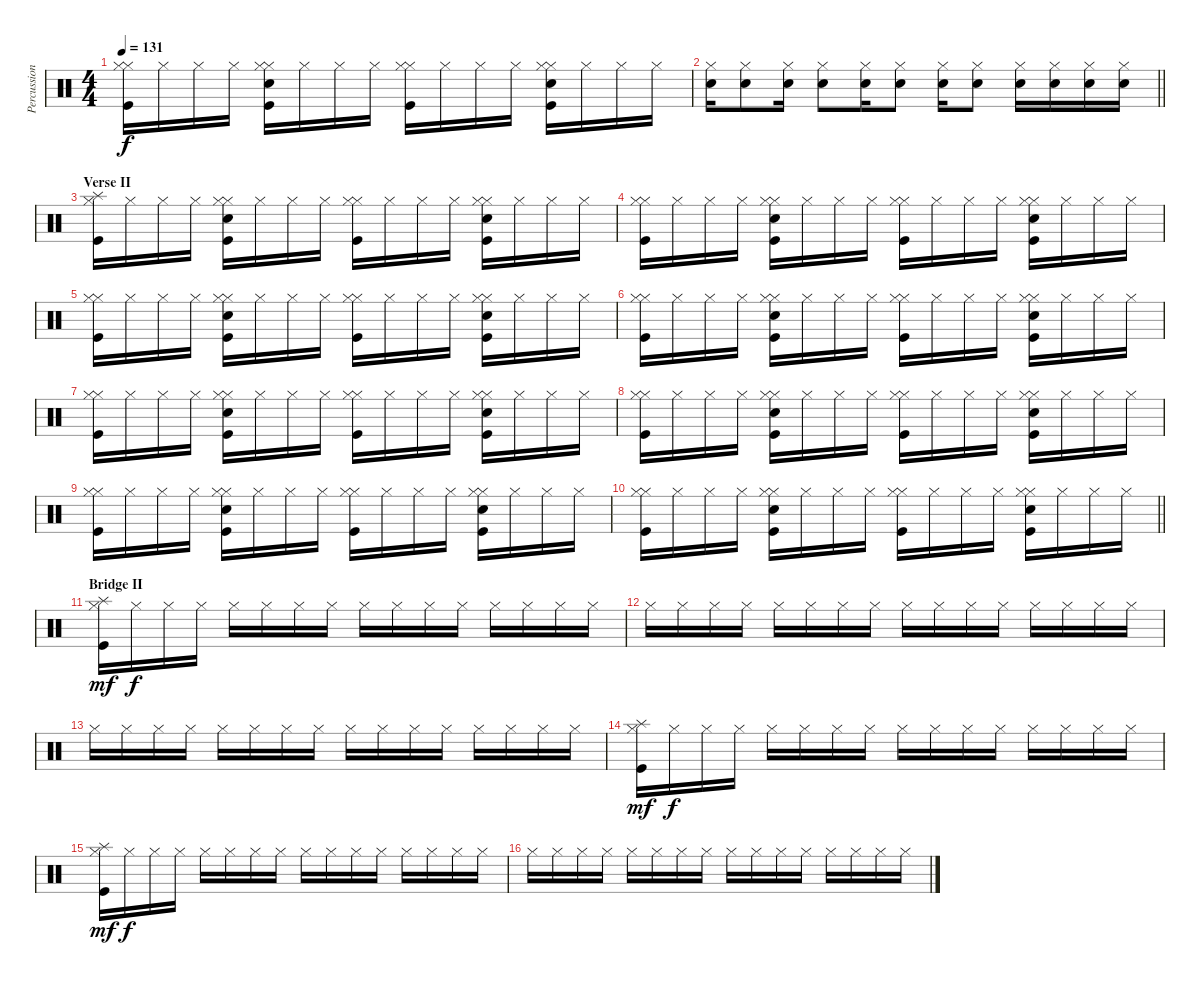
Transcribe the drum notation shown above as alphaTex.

\track ("Percussion I" "Percussion") {instrument percussion}
\staff {score}
\articulation defaults
\ts (4 4)
\tempo 131
\clef neutral
\ks c
("Hi-Hat (closed)" "Hi-Hat (closed)" "Kick (hit)").16{dy f} "Hi-Hat (closed)".16 "Hi-Hat (closed)".16 "Hi-Hat (closed)".16 ("Hi-Hat (closed)" "Hand Clap (hit)" "Hi-Hat (closed)" "Kick (hit)").16 "Hi-Hat (closed)".16 "Hi-Hat (closed)".16 "Hi-Hat (closed)".16 ("Hi-Hat (closed)" "Hi-Hat (closed)" "Kick (hit)").16 "Hi-Hat (closed)".16 "Hi-Hat (closed)".16 "Hi-Hat (closed)".16 ("Hi-Hat (closed)" "Hand Clap (hit)" "Hi-Hat (closed)" "Kick (hit)").16 "Hi-Hat (closed)".16 "Hi-Hat (closed)".16 "Hi-Hat (closed)".16 |
\barLineRight lightlight
("Electric Snare (hit)" "Hi-Hat (closed)").16 ("Electric Snare (hit)" "Hi-Hat (closed)").8 ("Electric Snare (hit)" "Hi-Hat (closed)").16 ("Electric Snare (hit)" "Hi-Hat (closed)").8 ("Electric Snare (hit)" "Hi-Hat (closed)").16 ("Electric Snare (hit)" "Hi-Hat (closed)").8 ("Electric Snare (hit)" "Hi-Hat (closed)").16 ("Electric Snare (hit)" "Hi-Hat (closed)").8 ("Electric Snare (hit)" "Hi-Hat (closed)").16 ("Electric Snare (hit)" "Hi-Hat (closed)").16 ("Electric Snare (hit)" "Hi-Hat (closed)").16 ("Electric Snare (hit)" "Hi-Hat (closed)").16 |
\section ("" "Verse II")
("Splash (hit)" "Hi-Hat (closed)" "Kick (hit)").16 "Hi-Hat (closed)".16 "Hi-Hat (closed)".16 "Hi-Hat (closed)".16 ("Hi-Hat (closed)" "Hand Clap (hit)" "Hi-Hat (closed)" "Kick (hit)").16 "Hi-Hat (closed)".16 "Hi-Hat (closed)".16 "Hi-Hat (closed)".16 ("Hi-Hat (closed)" "Hi-Hat (closed)" "Kick (hit)").16 "Hi-Hat (closed)".16 "Hi-Hat (closed)".16 "Hi-Hat (closed)".16 ("Hi-Hat (closed)" "Hand Clap (hit)" "Hi-Hat (closed)" "Kick (hit)").16 "Hi-Hat (closed)".16 "Hi-Hat (closed)".16 "Hi-Hat (closed)".16 |
("Hi-Hat (closed)" "Hi-Hat (closed)" "Kick (hit)").16 "Hi-Hat (closed)".16 "Hi-Hat (closed)".16 "Hi-Hat (closed)".16 ("Hi-Hat (closed)" "Hand Clap (hit)" "Hi-Hat (closed)" "Kick (hit)").16 "Hi-Hat (closed)".16 "Hi-Hat (closed)".16 "Hi-Hat (closed)".16 ("Hi-Hat (closed)" "Hi-Hat (closed)" "Kick (hit)").16 "Hi-Hat (closed)".16 "Hi-Hat (closed)".16 "Hi-Hat (closed)".16 ("Hi-Hat (closed)" "Hand Clap (hit)" "Hi-Hat (closed)" "Kick (hit)").16 "Hi-Hat (closed)".16 "Hi-Hat (closed)".16 "Hi-Hat (closed)".16 |
("Hi-Hat (closed)" "Hi-Hat (closed)" "Kick (hit)").16 "Hi-Hat (closed)".16 "Hi-Hat (closed)".16 "Hi-Hat (closed)".16 ("Hi-Hat (closed)" "Hand Clap (hit)" "Hi-Hat (closed)" "Kick (hit)").16 "Hi-Hat (closed)".16 "Hi-Hat (closed)".16 "Hi-Hat (closed)".16 ("Hi-Hat (closed)" "Hi-Hat (closed)" "Kick (hit)").16 "Hi-Hat (closed)".16 "Hi-Hat (closed)".16 "Hi-Hat (closed)".16 ("Hi-Hat (closed)" "Hand Clap (hit)" "Hi-Hat (closed)" "Kick (hit)").16 "Hi-Hat (closed)".16 "Hi-Hat (closed)".16 "Hi-Hat (closed)".16 |
("Hi-Hat (closed)" "Hi-Hat (closed)" "Kick (hit)").16 "Hi-Hat (closed)".16 "Hi-Hat (closed)".16 "Hi-Hat (closed)".16 ("Hi-Hat (closed)" "Hand Clap (hit)" "Hi-Hat (closed)" "Kick (hit)").16 "Hi-Hat (closed)".16 "Hi-Hat (closed)".16 "Hi-Hat (closed)".16 ("Hi-Hat (closed)" "Hi-Hat (closed)" "Kick (hit)").16 "Hi-Hat (closed)".16 "Hi-Hat (closed)".16 "Hi-Hat (closed)".16 ("Hi-Hat (closed)" "Hand Clap (hit)" "Hi-Hat (closed)" "Kick (hit)").16 "Hi-Hat (closed)".16 "Hi-Hat (closed)".16 "Hi-Hat (closed)".16 |
("Hi-Hat (closed)" "Hi-Hat (closed)" "Kick (hit)").16 "Hi-Hat (closed)".16 "Hi-Hat (closed)".16 "Hi-Hat (closed)".16 ("Hi-Hat (closed)" "Hand Clap (hit)" "Hi-Hat (closed)" "Kick (hit)").16 "Hi-Hat (closed)".16 "Hi-Hat (closed)".16 "Hi-Hat (closed)".16 ("Hi-Hat (closed)" "Hi-Hat (closed)" "Kick (hit)").16 "Hi-Hat (closed)".16 "Hi-Hat (closed)".16 "Hi-Hat (closed)".16 ("Hi-Hat (closed)" "Hand Clap (hit)" "Hi-Hat (closed)" "Kick (hit)").16 "Hi-Hat (closed)".16 "Hi-Hat (closed)".16 "Hi-Hat (closed)".16 |
("Hi-Hat (closed)" "Hi-Hat (closed)" "Kick (hit)").16 "Hi-Hat (closed)".16 "Hi-Hat (closed)".16 "Hi-Hat (closed)".16 ("Hi-Hat (closed)" "Hand Clap (hit)" "Hi-Hat (closed)" "Kick (hit)").16 "Hi-Hat (closed)".16 "Hi-Hat (closed)".16 "Hi-Hat (closed)".16 ("Hi-Hat (closed)" "Hi-Hat (closed)" "Kick (hit)").16 "Hi-Hat (closed)".16 "Hi-Hat (closed)".16 "Hi-Hat (closed)".16 ("Hi-Hat (closed)" "Hand Clap (hit)" "Hi-Hat (closed)" "Kick (hit)").16 "Hi-Hat (closed)".16 "Hi-Hat (closed)".16 "Hi-Hat (closed)".16 |
("Hi-Hat (closed)" "Hi-Hat (closed)" "Kick (hit)").16 "Hi-Hat (closed)".16 "Hi-Hat (closed)".16 "Hi-Hat (closed)".16 ("Hi-Hat (closed)" "Hand Clap (hit)" "Hi-Hat (closed)" "Kick (hit)").16 "Hi-Hat (closed)".16 "Hi-Hat (closed)".16 "Hi-Hat (closed)".16 ("Hi-Hat (closed)" "Hi-Hat (closed)" "Kick (hit)").16 "Hi-Hat (closed)".16 "Hi-Hat (closed)".16 "Hi-Hat (closed)".16 ("Hi-Hat (closed)" "Hand Clap (hit)" "Hi-Hat (closed)" "Kick (hit)").16 "Hi-Hat (closed)".16 "Hi-Hat (closed)".16 "Hi-Hat (closed)".16 |
\barLineRight lightlight
("Hi-Hat (closed)" "Hi-Hat (closed)" "Kick (hit)").16 "Hi-Hat (closed)".16 "Hi-Hat (closed)".16 "Hi-Hat (closed)".16 ("Hi-Hat (closed)" "Hand Clap (hit)" "Hi-Hat (closed)" "Kick (hit)").16 "Hi-Hat (closed)".16 "Hi-Hat (closed)".16 "Hi-Hat (closed)".16 ("Hi-Hat (closed)" "Hi-Hat (closed)" "Kick (hit)").16 "Hi-Hat (closed)".16 "Hi-Hat (closed)".16 "Hi-Hat (closed)".16 ("Hi-Hat (closed)" "Hand Clap (hit)" "Hi-Hat (closed)" "Kick (hit)").16 "Hi-Hat (closed)".16 "Hi-Hat (closed)".16 "Hi-Hat (closed)".16 |
\section ("" "Bridge II")
("Splash (hit)" "Hi-Hat (closed)" "Kick (hit)").16{dy mf} "Hi-Hat (closed)".16{dy f} "Hi-Hat (closed)".16 "Hi-Hat (closed)".16 "Hi-Hat (closed)".16 "Hi-Hat (closed)".16 "Hi-Hat (closed)".16 "Hi-Hat (closed)".16 "Hi-Hat (closed)".16 "Hi-Hat (closed)".16 "Hi-Hat (closed)".16 "Hi-Hat (closed)".16 "Hi-Hat (closed)".16 "Hi-Hat (closed)".16 "Hi-Hat (closed)".16 "Hi-Hat (closed)".16 |
"Hi-Hat (closed)".16 "Hi-Hat (closed)".16 "Hi-Hat (closed)".16 "Hi-Hat (closed)".16 "Hi-Hat (closed)".16 "Hi-Hat (closed)".16 "Hi-Hat (closed)".16 "Hi-Hat (closed)".16 "Hi-Hat (closed)".16 "Hi-Hat (closed)".16 "Hi-Hat (closed)".16 "Hi-Hat (closed)".16 "Hi-Hat (closed)".16 "Hi-Hat (closed)".16 "Hi-Hat (closed)".16 "Hi-Hat (closed)".16 |
"Hi-Hat (closed)".16 "Hi-Hat (closed)".16 "Hi-Hat (closed)".16 "Hi-Hat (closed)".16 "Hi-Hat (closed)".16 "Hi-Hat (closed)".16 "Hi-Hat (closed)".16 "Hi-Hat (closed)".16 "Hi-Hat (closed)".16 "Hi-Hat (closed)".16 "Hi-Hat (closed)".16 "Hi-Hat (closed)".16 "Hi-Hat (closed)".16 "Hi-Hat (closed)".16 "Hi-Hat (closed)".16 "Hi-Hat (closed)".16 |
("Splash (hit)" "Hi-Hat (closed)" "Kick (hit)").16{dy mf} "Hi-Hat (closed)".16{dy f} "Hi-Hat (closed)".16 "Hi-Hat (closed)".16 "Hi-Hat (closed)".16 "Hi-Hat (closed)".16 "Hi-Hat (closed)".16 "Hi-Hat (closed)".16 "Hi-Hat (closed)".16 "Hi-Hat (closed)".16 "Hi-Hat (closed)".16 "Hi-Hat (closed)".16 "Hi-Hat (closed)".16 "Hi-Hat (closed)".16 "Hi-Hat (closed)".16 "Hi-Hat (closed)".16 |
("Splash (hit)" "Hi-Hat (closed)" "Kick (hit)").16{dy mf} "Hi-Hat (closed)".16{dy f} "Hi-Hat (closed)".16 "Hi-Hat (closed)".16 "Hi-Hat (closed)".16 "Hi-Hat (closed)".16 "Hi-Hat (closed)".16 "Hi-Hat (closed)".16 "Hi-Hat (closed)".16 "Hi-Hat (closed)".16 "Hi-Hat (closed)".16 "Hi-Hat (closed)".16 "Hi-Hat (closed)".16 "Hi-Hat (closed)".16 "Hi-Hat (closed)".16 "Hi-Hat (closed)".16 |
"Hi-Hat (closed)".16 "Hi-Hat (closed)".16 "Hi-Hat (closed)".16 "Hi-Hat (closed)".16 "Hi-Hat (closed)".16 "Hi-Hat (closed)".16 "Hi-Hat (closed)".16 "Hi-Hat (closed)".16 "Hi-Hat (closed)".16 "Hi-Hat (closed)".16 "Hi-Hat (closed)".16 "Hi-Hat (closed)".16 "Hi-Hat (closed)".16 "Hi-Hat (closed)".16 "Hi-Hat (closed)".16 "Hi-Hat (closed)".16
